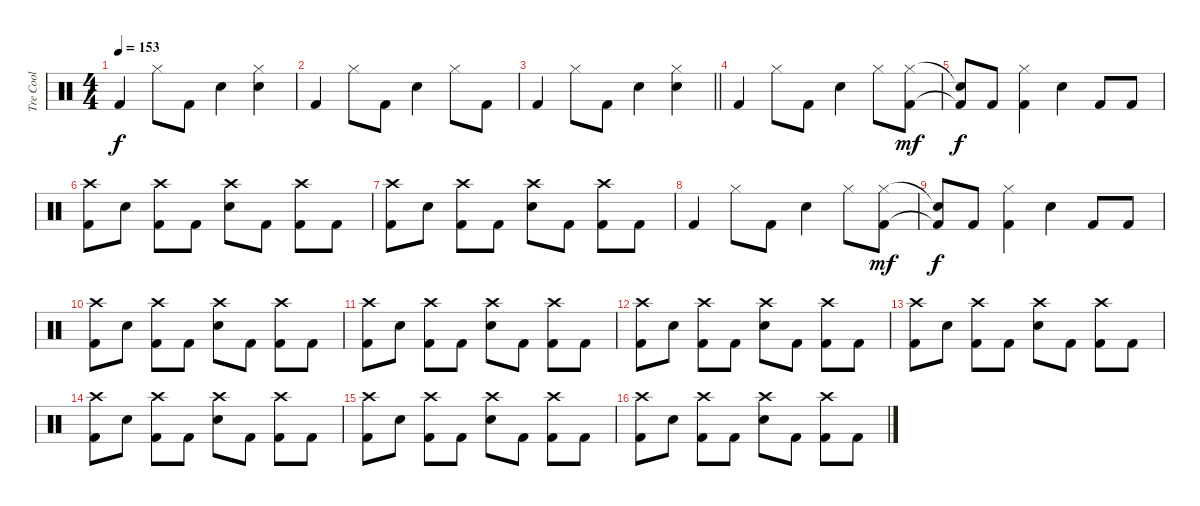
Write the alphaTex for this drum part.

\track ("Tre Cool" "Tre Cool") {instrument percussion}
\staff {score}
\articulation defaults
\ts (4 4)
\tempo 153
\clef neutral
\ks c "Kick (hit) 2".4{dy f} "Hi-Hat (closed)".8 "Kick (hit) 2".8 "Snare (hit) 2".4
("Snare (hit) 2" "Hi-Hat (closed)").4 |
"Kick (hit) 2".4 "Hi-Hat (closed)".8 "Kick (hit) 2".8 "Snare (hit) 2".4 "Hi-Hat (closed)".8 "Kick (hit) 2".8 |
\barLineRight lightlight "Kick (hit) 2".4 "Hi-Hat (closed)".8 "Kick (hit) 2".8 "Snare (hit) 2".4
("Snare (hit) 2" "Hi-Hat (closed)").4 |
"Kick (hit) 2".4 "Hi-Hat (closed)".8 "Kick (hit) 2".8 "Snare (hit) 2".4 "Hi-Hat (closed)".8 ("Kick (hit) 2" "Hi-Hat (closed)").8{dy mf} |
("Kick (hit) 2"{t} "Snare (hit)"{t}).8{dy f} "Kick (hit) 2".8 ("Kick (hit) 2" "Hi-Hat (closed)").4 "Snare (hit) 2".4 "Kick (hit) 2".8 "Kick (hit) 2".8 |
("Kick (hit) 2" "Crash high (hit)").8 "Snare (hit) 2".8 ("Kick (hit) 2" "Crash high (hit)").8 "Kick (hit) 2".8 ("Snare (hit) 2" "Crash high (hit)").8 "Kick (hit) 2".8 ("Kick (hit) 2" "Crash high (hit)").8 "Kick (hit) 2".8 |
("Kick (hit) 2" "Crash high (hit)").8 "Snare (hit) 2".8 ("Kick (hit) 2" "Crash high (hit)").8 "Kick (hit) 2".8 ("Snare (hit) 2" "Crash high (hit)").8 "Kick (hit) 2".8 ("Kick (hit) 2" "Crash high (hit)").8 "Kick (hit) 2".8 |
"Kick (hit) 2".4 "Hi-Hat (closed)".8 "Kick (hit) 2".8 "Snare (hit) 2".4 "Hi-Hat (closed)".8 ("Kick (hit) 2" "Hi-Hat (closed)").8{dy mf} |
("Kick (hit) 2"{t} "Snare (hit)"{t}).8{dy f} "Kick (hit) 2".8 ("Kick (hit) 2" "Hi-Hat (closed)").4 "Snare (hit) 2".4 "Kick (hit) 2".8 "Kick (hit) 2".8 |
("Kick (hit) 2" "Crash high (hit)").8 "Snare (hit) 2".8 ("Kick (hit) 2" "Crash high (hit)").8 "Kick (hit) 2".8 ("Snare (hit) 2" "Crash high (hit)").8 "Kick (hit) 2".8 ("Kick (hit) 2" "Crash high (hit)").8 "Kick (hit) 2".8 |
("Kick (hit) 2" "Crash high (hit)").8 "Snare (hit) 2".8 ("Kick (hit) 2" "Crash high (hit)").8 "Kick (hit) 2".8 ("Snare (hit) 2" "Crash high (hit)").8 "Kick (hit) 2".8 ("Kick (hit) 2" "Crash high (hit)").8 "Kick (hit) 2".8 |
("Kick (hit) 2" "Crash high (hit)").8 "Snare (hit) 2".8 ("Kick (hit) 2" "Crash high (hit)").8 "Kick (hit) 2".8 ("Snare (hit) 2" "Crash high (hit)").8 "Kick (hit) 2".8 ("Kick (hit) 2" "Crash high (hit)").8 "Kick (hit) 2".8 |
("Kick (hit) 2" "Crash high (hit)").8 "Snare (hit) 2".8 ("Kick (hit) 2" "Crash high (hit)").8 "Kick (hit) 2".8 ("Snare (hit) 2" "Crash high (hit)").8 "Kick (hit) 2".8 ("Kick (hit) 2" "Crash high (hit)").8 "Kick (hit) 2".8 |
("Kick (hit) 2" "Crash high (hit)").8 "Snare (hit) 2".8 ("Kick (hit) 2" "Crash high (hit)").8 "Kick (hit) 2".8 ("Snare (hit) 2" "Crash high (hit)").8 "Kick (hit) 2".8 ("Kick (hit) 2" "Crash high (hit)").8 "Kick (hit) 2".8 |
("Kick (hit) 2" "Crash high (hit)").8 "Snare (hit) 2".8 ("Kick (hit) 2" "Crash high (hit)").8 "Kick (hit) 2".8 ("Snare (hit) 2" "Crash high (hit)").8 "Kick (hit) 2".8 ("Kick (hit) 2" "Crash high (hit)").8 "Kick (hit) 2".8 |
("Kick (hit) 2" "Crash high (hit)").8 "Snare (hit) 2".8 ("Kick (hit) 2" "Crash high (hit)").8 "Kick (hit) 2".8 ("Snare (hit) 2" "Crash high (hit)").8 "Kick (hit) 2".8 ("Kick (hit) 2" "Crash high (hit)").8 "Kick (hit) 2".8
